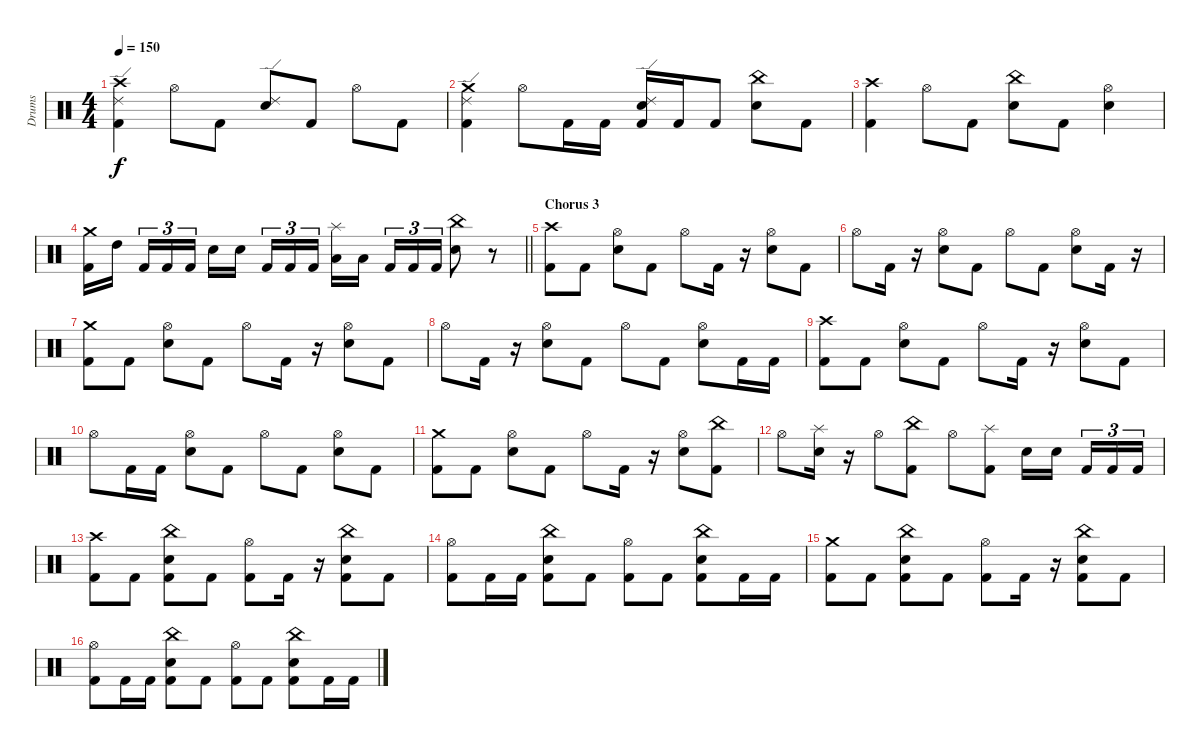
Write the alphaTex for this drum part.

\track ("Drums" "Drums") {instrument percussion}
\staff {score}
\articulation defaults
\ts (4 4)
\tempo 150
\clef neutral
\ks c
("Crash high (hit)" "Ride (edge) 2" "Kick (hit) 2").4{dy f} "Hi-Hat (open)".8 "Kick (hit) 2".8 ("Ride (edge) 2" "Snare (hit) 2").8 "Kick (hit) 2".8 "Hi-Hat (open)".8 "Kick (hit) 2".8 |
("Crash medium (hit)" "Ride (edge) 2" "Kick (hit) 2").4 "Hi-Hat (open)".8 "Kick (hit) 2".16 "Kick (hit) 2".16 ("Ride (edge) 2" "Snare (hit) 2" "Kick (hit) 2").16 "Kick (hit) 2".16 "Kick (hit) 2".8 ("China (hit)" "Snare (hit) 2").8 "Kick (hit) 2".8 |
("Crash high (hit)" "Kick (hit) 2").4 "Hi-Hat (open)".8 "Kick (hit) 2".8 ("China (hit)" "Snare (hit) 2").8 "Kick (hit) 2".8 ("Hi-Hat (open)" "Snare (hit) 2").4 |
\barLineRight lightlight
("Crash medium (hit)" "Kick (hit) 2").16 "High Tom (hit)".16{beam splitsecondary} "Kick (hit) 2".16{tu (3 2)} "Kick (hit) 2".16{tu (3 2)} "Kick (hit) 2".16{tu (3 2)} "Snare (hit) 2".16 "Snare (hit) 2".16{beam splitsecondary} "Kick (hit) 2".16{tu (3 2)} "Kick (hit) 2".16{tu (3 2)} "Kick (hit) 2".16{tu (3 2)} ("Splash (hit)" "Low Tom (hit)").16 "Low Tom (hit)".16{beam splitsecondary} "Kick (hit) 2".16{tu (3 2)} "Kick (hit) 2".16{tu (3 2)} "Kick (hit) 2".16{tu (3 2)} ("China (hit)" "Snare (hit) 2").8 r.8 |
\section ("" "Chorus 3")
("Crash high (hit)" "Kick (hit) 2").8 "Kick (hit) 2".8 ("Hi-Hat (open)" "Snare (hit) 2").8 "Kick (hit) 2".8 "Hi-Hat (open)".8 "Kick (hit) 2".16 r.16 ("Hi-Hat (open)" "Snare (hit) 2").8 "Kick (hit) 2".8 |
"Hi-Hat (open)".8 "Kick (hit) 2".16 r.16 ("Hi-Hat (open)" "Snare (hit) 2").8 "Kick (hit) 2".8 "Hi-Hat (open)".8 "Kick (hit) 2".8 ("Hi-Hat (open)" "Snare (hit) 2").8 "Kick (hit) 2".16 r.16 |
("Crash medium (hit)" "Kick (hit) 2").8 "Kick (hit) 2".8 ("Hi-Hat (open)" "Snare (hit) 2").8 "Kick (hit) 2".8 "Hi-Hat (open)".8 "Kick (hit) 2".16 r.16 ("Hi-Hat (open)" "Snare (hit) 2").8 "Kick (hit) 2".8 |
"Hi-Hat (open)".8 "Kick (hit) 2".16 r.16 ("Hi-Hat (open)" "Snare (hit) 2").8 "Kick (hit) 2".8 "Hi-Hat (open)".8 "Kick (hit) 2".8 ("Hi-Hat (open)" "Snare (hit) 2").8 "Kick (hit) 2".16 "Kick (hit) 2".16 |
("Crash high (hit)" "Kick (hit) 2").8 "Kick (hit) 2".8 ("Hi-Hat (open)" "Snare (hit) 2").8 "Kick (hit) 2".8 "Hi-Hat (open)".8 "Kick (hit) 2".16 r.16 ("Hi-Hat (open)" "Snare (hit) 2").8 "Kick (hit) 2".8 |
"Hi-Hat (open)".8 "Kick (hit) 2".16 "Kick (hit) 2".16 ("Hi-Hat (open)" "Snare (hit) 2").8 "Kick (hit) 2".8 "Hi-Hat (open)".8 "Kick (hit) 2".8 ("Hi-Hat (open)" "Snare (hit) 2").8 "Kick (hit) 2".8 |
("Crash medium (hit)" "Kick (hit) 2").8 "Kick (hit) 2".8 ("Hi-Hat (open)" "Snare (hit) 2").8 "Kick (hit) 2".8 "Hi-Hat (open)".8 "Kick (hit) 2".16 r.16 ("Hi-Hat (open)" "Snare (hit) 2").8 ("China (hit)" "Kick (hit) 2").8 |
"Hi-Hat (open)".8 ("Splash (hit)" "Snare (hit) 2").16 r.16 "Hi-Hat (open)".8 ("China (hit)" "Kick (hit) 2").8 "Hi-Hat (open)".8 ("Splash (hit)" "Kick (hit) 2").8 "Snare (hit) 2".16 "Snare (hit) 2".16{beam splitsecondary} "Kick (hit) 2".16{tu (3 2)} "Kick (hit) 2".16{tu (3 2)} "Kick (hit) 2".16{tu (3 2)} |
("Crash high (hit)" "Kick (hit) 2").8 "Kick (hit) 2".8 ("China (hit)" "Snare (hit) 2" "Kick (hit) 2").8 "Kick (hit) 2".8 ("Hi-Hat (open)" "Kick (hit) 2").8 "Kick (hit) 2".16 r.16 ("China (hit)" "Snare (hit) 2" "Kick (hit) 2").8 "Kick (hit) 2".8 |
("Hi-Hat (open)" "Kick (hit) 2").8 "Kick (hit) 2".16 "Kick (hit) 2".16 ("China (hit)" "Snare (hit) 2" "Kick (hit) 2").8 "Kick (hit) 2".8 ("Hi-Hat (open)" "Kick (hit) 2").8 "Kick (hit) 2".8 ("China (hit)" "Snare (hit) 2" "Kick (hit) 2").8 "Kick (hit) 2".16 "Kick (hit) 2".16 |
("Crash medium (hit)" "Kick (hit) 2").8 "Kick (hit) 2".8 ("China (hit)" "Snare (hit) 2" "Kick (hit) 2").8 "Kick (hit) 2".8 ("Hi-Hat (open)" "Kick (hit) 2").8 "Kick (hit) 2".16 r.16 ("China (hit)" "Snare (hit) 2" "Kick (hit) 2").8 "Kick (hit) 2".8 |
("Hi-Hat (open)" "Kick (hit) 2").8 "Kick (hit) 2".16 "Kick (hit) 2".16 ("China (hit)" "Snare (hit) 2" "Kick (hit) 2").8 "Kick (hit) 2".8 ("Hi-Hat (open)" "Kick (hit) 2").8 "Kick (hit) 2".8 ("China (hit)" "Snare (hit) 2" "Kick (hit) 2").8 "Kick (hit) 2".16 "Kick (hit) 2".16
